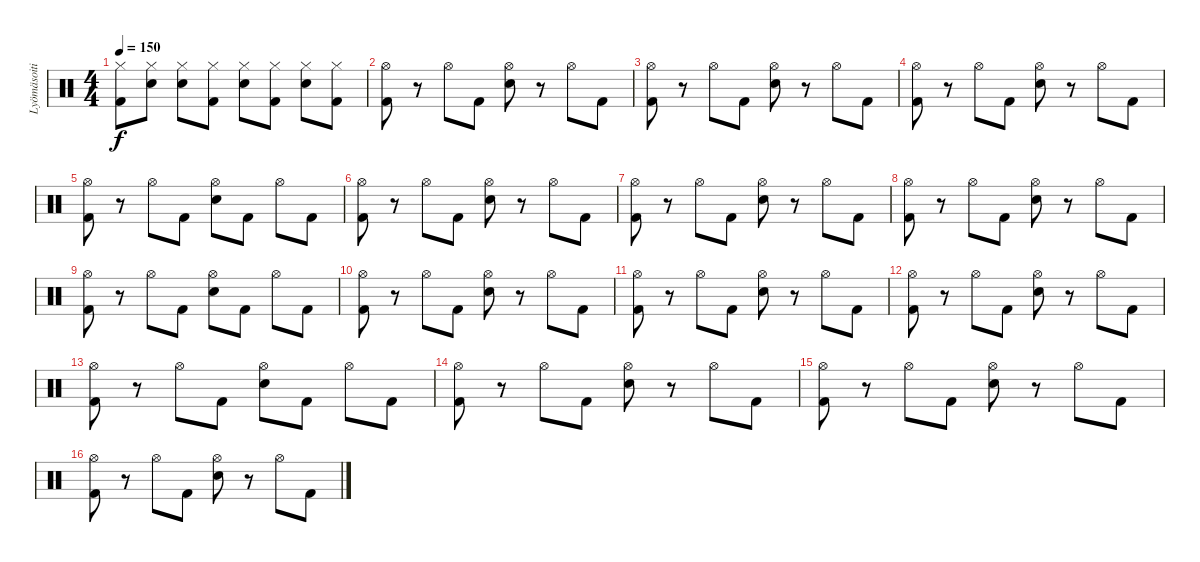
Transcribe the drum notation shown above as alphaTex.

\track ("Lyömäsoitin" "Lyömäsoiti") {instrument percussion}
\staff {score}
\articulation defaults
\ts (4 4)
\tempo 150
\clef neutral
\ks c
("Hi-Hat (closed)" "Kick (hit) 2").8{dy f} ("Hi-Hat (closed)" "Electric Snare (hit)").8 ("Hi-Hat (closed)" "Electric Snare (hit)").8 ("Hi-Hat (closed)" "Kick (hit) 2").8 ("Hi-Hat (closed)" "Electric Snare (hit)").8 ("Hi-Hat (closed)" "Kick (hit) 2").8 ("Hi-Hat (closed)" "Electric Snare (hit)").8 ("Hi-Hat (closed)" "Kick (hit) 2").8 |
("Hi-Hat (open)" "Kick (hit) 2").8 r.8 "Hi-Hat (open)".8 "Kick (hit) 2".8 ("Hi-Hat (open)" "Electric Snare (hit)").8 r.8 "Hi-Hat (open)".8 "Kick (hit) 2".8 |
("Hi-Hat (open)" "Kick (hit) 2").8 r.8 "Hi-Hat (open)".8 "Kick (hit) 2".8 ("Hi-Hat (open)" "Electric Snare (hit)").8 r.8 "Hi-Hat (open)".8 "Kick (hit) 2".8 |
("Hi-Hat (open)" "Kick (hit) 2").8 r.8 "Hi-Hat (open)".8 "Kick (hit) 2".8 ("Hi-Hat (open)" "Electric Snare (hit)").8 r.8 "Hi-Hat (open)".8 "Kick (hit) 2".8 |
("Hi-Hat (open)" "Kick (hit) 2").8 r.8 "Hi-Hat (open)".8 "Kick (hit) 2".8 ("Hi-Hat (open)" "Electric Snare (hit)").8 "Kick (hit) 2".8 "Hi-Hat (open)".8 "Kick (hit) 2".8 |
("Hi-Hat (open)" "Kick (hit) 2").8 r.8 "Hi-Hat (open)".8 "Kick (hit) 2".8 ("Hi-Hat (open)" "Electric Snare (hit)").8 r.8 "Hi-Hat (open)".8 "Kick (hit) 2".8 |
("Hi-Hat (open)" "Kick (hit) 2").8 r.8 "Hi-Hat (open)".8 "Kick (hit) 2".8 ("Hi-Hat (open)" "Electric Snare (hit)").8 r.8 "Hi-Hat (open)".8 "Kick (hit) 2".8 |
("Hi-Hat (open)" "Kick (hit) 2").8 r.8 "Hi-Hat (open)".8 "Kick (hit) 2".8 ("Hi-Hat (open)" "Electric Snare (hit)").8 r.8 "Hi-Hat (open)".8 "Kick (hit) 2".8 |
("Hi-Hat (open)" "Kick (hit) 2").8 r.8 "Hi-Hat (open)".8 "Kick (hit) 2".8 ("Hi-Hat (open)" "Electric Snare (hit)").8 "Kick (hit) 2".8 "Hi-Hat (open)".8 "Kick (hit) 2".8 |
("Hi-Hat (open)" "Kick (hit) 2").8 r.8 "Hi-Hat (open)".8 "Kick (hit) 2".8 ("Hi-Hat (open)" "Electric Snare (hit)").8 r.8 "Hi-Hat (open)".8 "Kick (hit) 2".8 |
("Hi-Hat (open)" "Kick (hit) 2").8 r.8 "Hi-Hat (open)".8 "Kick (hit) 2".8 ("Hi-Hat (open)" "Electric Snare (hit)").8 r.8 "Hi-Hat (open)".8 "Kick (hit) 2".8 |
("Hi-Hat (open)" "Kick (hit) 2").8 r.8 "Hi-Hat (open)".8 "Kick (hit) 2".8 ("Hi-Hat (open)" "Electric Snare (hit)").8 r.8 "Hi-Hat (open)".8 "Kick (hit) 2".8 |
("Hi-Hat (open)" "Kick (hit) 2").8 r.8 "Hi-Hat (open)".8 "Kick (hit) 2".8 ("Hi-Hat (open)" "Electric Snare (hit)").8 "Kick (hit) 2".8 "Hi-Hat (open)".8 "Kick (hit) 2".8 |
("Hi-Hat (open)" "Kick (hit) 2").8 r.8 "Hi-Hat (open)".8 "Kick (hit) 2".8 ("Hi-Hat (open)" "Electric Snare (hit)").8 r.8 "Hi-Hat (open)".8 "Kick (hit) 2".8 |
("Hi-Hat (open)" "Kick (hit) 2").8 r.8 "Hi-Hat (open)".8 "Kick (hit) 2".8 ("Hi-Hat (open)" "Electric Snare (hit)").8 r.8 "Hi-Hat (open)".8 "Kick (hit) 2".8 |
("Hi-Hat (open)" "Kick (hit) 2").8 r.8 "Hi-Hat (open)".8 "Kick (hit) 2".8 ("Hi-Hat (open)" "Electric Snare (hit)").8 r.8 "Hi-Hat (open)".8 "Kick (hit) 2".8
